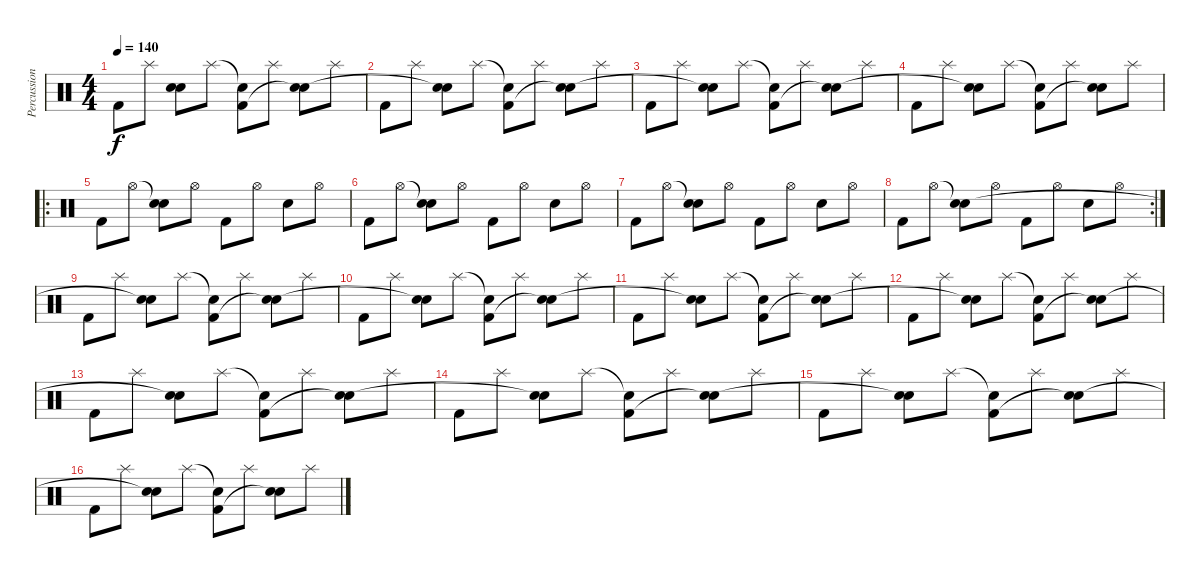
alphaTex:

\track ("Percussion" "Percussion") {instrument percussion}
\staff {score}
\articulation defaults
\ts (4 4)
\tempo 140
\clef neutral
\ks c "Kick (hit) 2".8{dy f} "Splash (hit)".8
("Snare (hit) 2" "Snare (hit)"{t}).8 "Splash (hit)".8 ("Snare (hit)"{t} "Kick (hit) 2").8 "Splash (hit)".8 ("Snare (hit) 2" "Snare (hit)"{t}).8 "Splash (hit)".8 |
"Kick (hit) 2".8 "Splash (hit)".8 ("Snare (hit) 2" "Snare (hit)"{t}).8 "Splash (hit)".8 ("Snare (hit)"{t} "Kick (hit) 2").8 "Splash (hit)".8 ("Snare (hit) 2" "Snare (hit)"{t}).8 "Splash (hit)".8 |
"Kick (hit) 2".8 "Splash (hit)".8 ("Snare (hit) 2" "Snare (hit)"{t}).8 "Splash (hit)".8 ("Snare (hit)"{t} "Kick (hit) 2").8 "Splash (hit)".8 ("Snare (hit) 2" "Snare (hit)"{t}).8 "Splash (hit)".8 |
"Kick (hit) 2".8 "Splash (hit)".8 ("Snare (hit) 2" "Snare (hit)"{t}).8 "Splash (hit)".8 ("Snare (hit)"{t} "Kick (hit) 2").8 "Splash (hit)".8 ("Snare (hit) 2" "Snare (hit)"{t}).8 "Splash (hit)".8 |
\ro "Kick (hit) 2".8 "Hi-Hat (open)".8
("Snare (hit)"{t} "Snare (hit) 2").8 "Hi-Hat (open)".8 "Kick (hit) 2".8 "Hi-Hat (open)".8 "Snare (hit) 2".8 "Hi-Hat (open)".8 |
"Kick (hit) 2".8 "Hi-Hat (open)".8 ("Snare (hit)"{t} "Snare (hit) 2").8 "Hi-Hat (open)".8 "Kick (hit) 2".8 "Hi-Hat (open)".8 "Snare (hit) 2".8 "Hi-Hat (open)".8 |
"Kick (hit) 2".8 "Hi-Hat (open)".8 ("Snare (hit)"{t} "Snare (hit) 2").8 "Hi-Hat (open)".8 "Kick (hit) 2".8 "Hi-Hat (open)".8 "Snare (hit) 2".8 "Hi-Hat (open)".8 |
\rc 2 "Kick (hit) 2".8 "Hi-Hat (open)".8
("Snare (hit)"{t} "Snare (hit) 2").8 "Hi-Hat (open)".8 "Kick (hit) 2".8 "Hi-Hat (open)".8 "Snare (hit) 2".8 "Hi-Hat (open)".8 |
"Kick (hit) 2".8 "Splash (hit)".8 ("Snare (hit) 2" "Snare (hit)"{t}).8 "Splash (hit)".8 ("Snare (hit)"{t} "Kick (hit) 2").8 "Splash (hit)".8 ("Snare (hit) 2" "Snare (hit)"{t}).8 "Splash (hit)".8 |
"Kick (hit) 2".8 "Splash (hit)".8 ("Snare (hit) 2" "Snare (hit)"{t}).8 "Splash (hit)".8 ("Snare (hit)"{t} "Kick (hit) 2").8 "Splash (hit)".8 ("Snare (hit) 2" "Snare (hit)"{t}).8 "Splash (hit)".8 |
"Kick (hit) 2".8 "Splash (hit)".8 ("Snare (hit) 2" "Snare (hit)"{t}).8 "Splash (hit)".8 ("Snare (hit)"{t} "Kick (hit) 2").8 "Splash (hit)".8 ("Snare (hit) 2" "Snare (hit)"{t}).8 "Splash (hit)".8 |
"Kick (hit) 2".8 "Splash (hit)".8 ("Snare (hit) 2" "Snare (hit)"{t}).8 "Splash (hit)".8 ("Snare (hit)"{t} "Kick (hit) 2").8 "Splash (hit)".8 ("Snare (hit) 2" "Snare (hit)"{t}).8 "Splash (hit)".8 |
"Kick (hit) 2".8 "Splash (hit)".8 ("Snare (hit) 2" "Snare (hit)"{t}).8 "Splash (hit)".8 ("Snare (hit)"{t} "Kick (hit) 2").8 "Splash (hit)".8 ("Snare (hit) 2" "Snare (hit)"{t}).8 "Splash (hit)".8 |
"Kick (hit) 2".8 "Splash (hit)".8 ("Snare (hit) 2" "Snare (hit)"{t}).8 "Splash (hit)".8 ("Snare (hit)"{t} "Kick (hit) 2").8 "Splash (hit)".8 ("Snare (hit) 2" "Snare (hit)"{t}).8 "Splash (hit)".8 |
"Kick (hit) 2".8 "Splash (hit)".8 ("Snare (hit) 2" "Snare (hit)"{t}).8 "Splash (hit)".8 ("Snare (hit)"{t} "Kick (hit) 2").8 "Splash (hit)".8 ("Snare (hit) 2" "Snare (hit)"{t}).8 "Splash (hit)".8 |
"Kick (hit) 2".8 "Splash (hit)".8 ("Snare (hit) 2" "Snare (hit)"{t}).8 "Splash (hit)".8 ("Snare (hit)"{t} "Kick (hit) 2").8 "Splash (hit)".8 ("Snare (hit) 2" "Snare (hit)"{t}).8 "Splash (hit)".8
